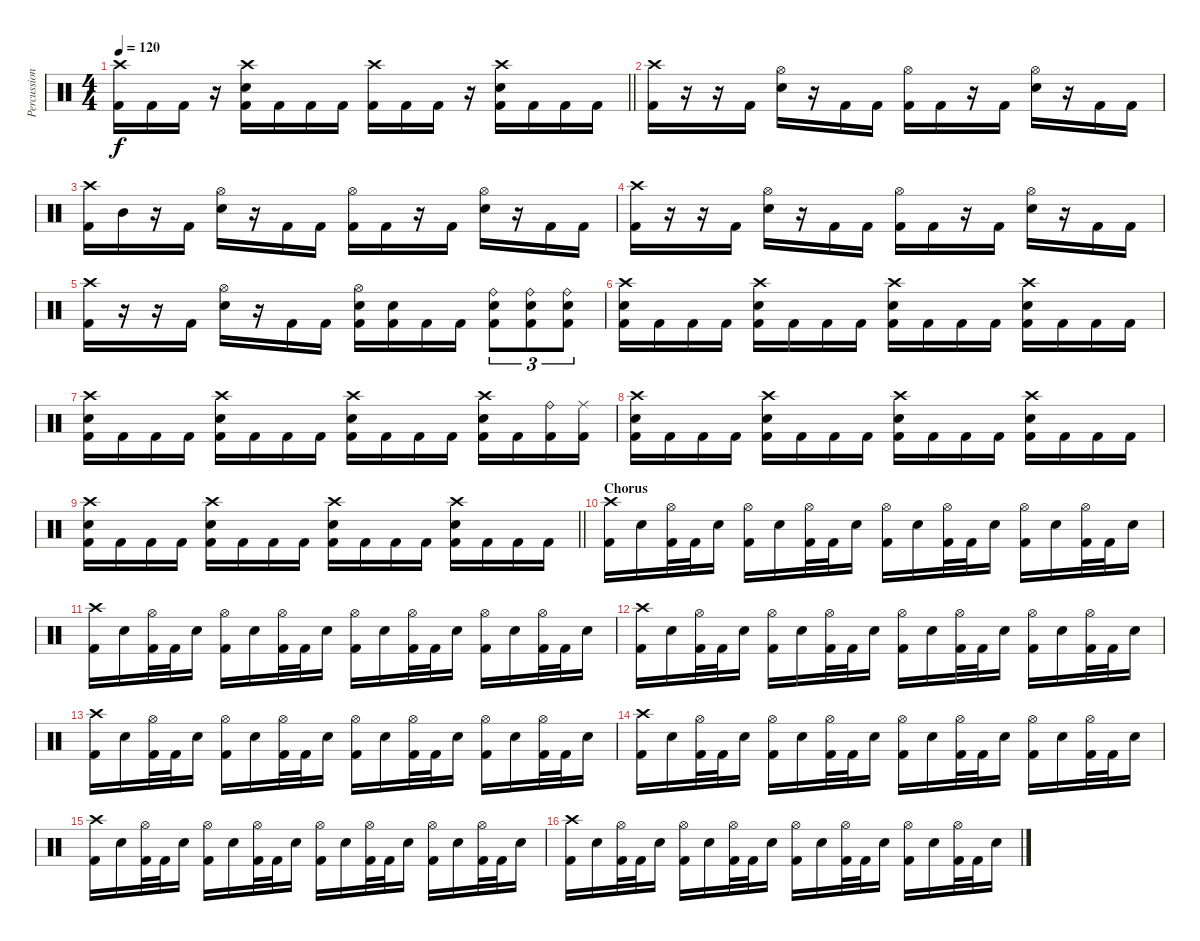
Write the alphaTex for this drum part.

\track ("Percussion" "Percussion") {instrument percussion}
\staff {score}
\articulation defaults
\ts (4 4)
\tempo 120
\clef neutral
\barLineRight lightlight
\ks c
("Crash high (hit)" "Kick (hit) 2").16{dy f} "Kick (hit) 2".16 "Kick (hit) 2".16 r.16 ("Crash high (hit)" "Snare (hit) 2" "Kick (hit) 2").16 "Kick (hit) 2".16 "Kick (hit) 2".16 "Kick (hit) 2".16 ("Crash high (hit)" "Kick (hit) 2").16 "Kick (hit) 2".16 "Kick (hit) 2".16 r.16 ("Crash high (hit)" "Snare (hit) 2" "Kick (hit) 2").16 "Kick (hit) 2".16 "Kick (hit) 2".16 "Kick (hit) 2".16 |
\section ("" "")
("Crash high (hit)" "Kick (hit) 2").16 r.16 r.16 "Kick (hit) 2".16 ("Hi-Hat (open)" "Snare (hit) 2").16 r.16 "Kick (hit) 2".16 "Kick (hit) 2".16 ("Hi-Hat (open)" "Kick (hit) 2").16 "Kick (hit) 2".16 r.16 "Kick (hit) 2".16 ("Hi-Hat (open)" "Snare (hit) 2").16 r.16 "Kick (hit) 2".16 "Kick (hit) 2".16 |
("Crash high (hit)" "Kick (hit) 2").16 "Mid Tom (hit)".16 r.16 "Kick (hit) 2".16 ("Hi-Hat (open)" "Snare (hit) 2").16 r.16 "Kick (hit) 2".16 "Kick (hit) 2".16 ("Hi-Hat (open)" "Kick (hit) 2").16 "Kick (hit) 2".16 r.16 "Kick (hit) 2".16 ("Hi-Hat (open)" "Snare (hit) 2").16 r.16 "Kick (hit) 2".16 "Kick (hit) 2".16 |
("Crash high (hit)" "Kick (hit) 2").16 r.16 r.16 "Kick (hit) 2".16 ("Hi-Hat (open)" "Snare (hit) 2").16 r.16 "Kick (hit) 2".16 "Kick (hit) 2".16 ("Hi-Hat (open)" "Kick (hit) 2").16 "Kick (hit) 2".16 r.16 "Kick (hit) 2".16 ("Hi-Hat (open)" "Snare (hit) 2").16 r.16 "Kick (hit) 2".16 "Kick (hit) 2".16 |
("Crash high (hit)" "Kick (hit) 2").16 r.16 r.16 "Kick (hit) 2".16 ("Hi-Hat (open)" "Snare (hit) 2").16 r.16 "Kick (hit) 2".16 "Kick (hit) 2".16 ("Hi-Hat (open)" "Snare (hit) 2" "Kick (hit) 2").16 ("Snare (hit) 2" "Kick (hit) 2").16 "Kick (hit) 2".16 "Kick (hit) 2".16 ("Ride (bell)" "Snare (hit) 2" "Kick (hit) 2").8{tu (3 2)} ("Ride (bell)" "Snare (hit) 2" "Kick (hit) 2").8{tu (3 2)} ("Ride (bell)" "Snare (hit) 2" "Kick (hit) 2").8{tu (3 2)} |
("Crash high (hit)" "Snare (hit) 2" "Kick (hit) 2").16 "Kick (hit) 2".16 "Kick (hit) 2".16 "Kick (hit) 2".16 ("Crash high (hit)" "Snare (hit) 2" "Kick (hit) 2").16 "Kick (hit) 2".16 "Kick (hit) 2".16 "Kick (hit) 2".16 ("Crash high (hit)" "Snare (hit) 2" "Kick (hit) 2").16 "Kick (hit) 2".16 "Kick (hit) 2".16 "Kick (hit) 2".16 ("Crash high (hit)" "Snare (hit) 2" "Kick (hit) 2").16 "Kick (hit) 2".16 "Kick (hit) 2".16 "Kick (hit) 2".16 |
("Crash high (hit)" "Snare (hit) 2" "Kick (hit) 2").16 "Kick (hit) 2".16 "Kick (hit) 2".16 "Kick (hit) 2".16 ("Crash high (hit)" "Snare (hit) 2" "Kick (hit) 2").16 "Kick (hit) 2".16 "Kick (hit) 2".16 "Kick (hit) 2".16 ("Crash high (hit)" "Snare (hit) 2" "Kick (hit) 2").16 "Kick (hit) 2".16 "Kick (hit) 2".16 "Kick (hit) 2".16 ("Crash high (hit)" "Snare (hit) 2" "Kick (hit) 2").16 "Kick (hit) 2".16 ("Ride (bell)" "Kick (hit) 2").16 ("Ride (middle)" "Kick (hit) 2").16 |
("Crash high (hit)" "Snare (hit) 2" "Kick (hit) 2").16 "Kick (hit) 2".16 "Kick (hit) 2".16 "Kick (hit) 2".16 ("Crash high (hit)" "Snare (hit) 2" "Kick (hit) 2").16 "Kick (hit) 2".16 "Kick (hit) 2".16 "Kick (hit) 2".16 ("Crash high (hit)" "Snare (hit) 2" "Kick (hit) 2").16 "Kick (hit) 2".16 "Kick (hit) 2".16 "Kick (hit) 2".16 ("Crash high (hit)" "Snare (hit) 2" "Kick (hit) 2").16 "Kick (hit) 2".16 "Kick (hit) 2".16 "Kick (hit) 2".16 |
\barLineRight lightlight
("Crash high (hit)" "Snare (hit) 2" "Kick (hit) 2").16 "Kick (hit) 2".16 "Kick (hit) 2".16 "Kick (hit) 2".16 ("Crash high (hit)" "Snare (hit) 2" "Kick (hit) 2").16 "Kick (hit) 2".16 "Kick (hit) 2".16 "Kick (hit) 2".16 ("Crash high (hit)" "Snare (hit) 2" "Kick (hit) 2").16 "Kick (hit) 2".16 "Kick (hit) 2".16 "Kick (hit) 2".16 ("Crash high (hit)" "Snare (hit) 2" "Kick (hit) 2").16 "Kick (hit) 2".16 "Kick (hit) 2".16 "Kick (hit) 2".16 |
\section ("" "Chorus")
("Crash high (hit)" "Kick (hit) 2").16 "Snare (hit) 2".16 ("Hi-Hat (open)" "Kick (hit) 2").32 "Kick (hit) 2".32 "Snare (hit) 2".16 ("Hi-Hat (open)" "Kick (hit) 2").16 "Snare (hit) 2".16 ("Hi-Hat (open)" "Kick (hit) 2").32 "Kick (hit) 2".32 "Snare (hit) 2".16 ("Hi-Hat (open)" "Kick (hit) 2").16 "Snare (hit) 2".16 ("Hi-Hat (open)" "Kick (hit) 2").32 "Kick (hit) 2".32 "Snare (hit) 2".16 ("Hi-Hat (open)" "Kick (hit) 2").16 "Snare (hit) 2".16 ("Hi-Hat (open)" "Kick (hit) 2").32 "Kick (hit) 2".32 "Snare (hit) 2".16 |
("Crash high (hit)" "Kick (hit) 2").16 "Snare (hit) 2".16 ("Hi-Hat (open)" "Kick (hit) 2").32 "Kick (hit) 2".32 "Snare (hit) 2".16 ("Hi-Hat (open)" "Kick (hit) 2").16 "Snare (hit) 2".16 ("Hi-Hat (open)" "Kick (hit) 2").32 "Kick (hit) 2".32 "Snare (hit) 2".16 ("Hi-Hat (open)" "Kick (hit) 2").16 "Snare (hit) 2".16 ("Hi-Hat (open)" "Kick (hit) 2").32 "Kick (hit) 2".32 "Snare (hit) 2".16 ("Hi-Hat (open)" "Kick (hit) 2").16 "Snare (hit) 2".16 ("Hi-Hat (open)" "Kick (hit) 2").32 "Kick (hit) 2".32 "Snare (hit) 2".16 |
("Crash high (hit)" "Kick (hit) 2").16 "Snare (hit) 2".16 ("Hi-Hat (open)" "Kick (hit) 2").32 "Kick (hit) 2".32 "Snare (hit) 2".16 ("Hi-Hat (open)" "Kick (hit) 2").16 "Snare (hit) 2".16 ("Hi-Hat (open)" "Kick (hit) 2").32 "Kick (hit) 2".32 "Snare (hit) 2".16 ("Hi-Hat (open)" "Kick (hit) 2").16 "Snare (hit) 2".16 ("Hi-Hat (open)" "Kick (hit) 2").32 "Kick (hit) 2".32 "Snare (hit) 2".16 ("Hi-Hat (open)" "Kick (hit) 2").16 "Snare (hit) 2".16 ("Hi-Hat (open)" "Kick (hit) 2").32 "Kick (hit) 2".32 "Snare (hit) 2".16 |
("Crash high (hit)" "Kick (hit) 2").16 "Snare (hit) 2".16 ("Hi-Hat (open)" "Kick (hit) 2").32 "Kick (hit) 2".32 "Snare (hit) 2".16 ("Hi-Hat (open)" "Kick (hit) 2").16 "Snare (hit) 2".16 ("Hi-Hat (open)" "Kick (hit) 2").32 "Kick (hit) 2".32 "Snare (hit) 2".16 ("Hi-Hat (open)" "Kick (hit) 2").16 "Snare (hit) 2".16 ("Hi-Hat (open)" "Kick (hit) 2").32 "Kick (hit) 2".32 "Snare (hit) 2".16 ("Hi-Hat (open)" "Kick (hit) 2").16 "Snare (hit) 2".16 ("Hi-Hat (open)" "Kick (hit) 2").32 "Kick (hit) 2".32 "Snare (hit) 2".16 |
("Crash high (hit)" "Kick (hit) 2").16 "Snare (hit) 2".16 ("Hi-Hat (open)" "Kick (hit) 2").32 "Kick (hit) 2".32 "Snare (hit) 2".16 ("Hi-Hat (open)" "Kick (hit) 2").16 "Snare (hit) 2".16 ("Hi-Hat (open)" "Kick (hit) 2").32 "Kick (hit) 2".32 "Snare (hit) 2".16 ("Hi-Hat (open)" "Kick (hit) 2").16 "Snare (hit) 2".16 ("Hi-Hat (open)" "Kick (hit) 2").32 "Kick (hit) 2".32 "Snare (hit) 2".16 ("Hi-Hat (open)" "Kick (hit) 2").16 "Snare (hit) 2".16 ("Hi-Hat (open)" "Kick (hit) 2").32 "Kick (hit) 2".32 "Snare (hit) 2".16 |
("Crash high (hit)" "Kick (hit) 2").16 "Snare (hit) 2".16 ("Hi-Hat (open)" "Kick (hit) 2").32 "Kick (hit) 2".32 "Snare (hit) 2".16 ("Hi-Hat (open)" "Kick (hit) 2").16 "Snare (hit) 2".16 ("Hi-Hat (open)" "Kick (hit) 2").32 "Kick (hit) 2".32 "Snare (hit) 2".16 ("Hi-Hat (open)" "Kick (hit) 2").16 "Snare (hit) 2".16 ("Hi-Hat (open)" "Kick (hit) 2").32 "Kick (hit) 2".32 "Snare (hit) 2".16 ("Hi-Hat (open)" "Kick (hit) 2").16 "Snare (hit) 2".16 ("Hi-Hat (open)" "Kick (hit) 2").32 "Kick (hit) 2".32 "Snare (hit) 2".16 |
("Crash high (hit)" "Kick (hit) 2").16 "Snare (hit) 2".16 ("Hi-Hat (open)" "Kick (hit) 2").32 "Kick (hit) 2".32 "Snare (hit) 2".16 ("Hi-Hat (open)" "Kick (hit) 2").16 "Snare (hit) 2".16 ("Hi-Hat (open)" "Kick (hit) 2").32 "Kick (hit) 2".32 "Snare (hit) 2".16 ("Hi-Hat (open)" "Kick (hit) 2").16 "Snare (hit) 2".16 ("Hi-Hat (open)" "Kick (hit) 2").32 "Kick (hit) 2".32 "Snare (hit) 2".16 ("Hi-Hat (open)" "Kick (hit) 2").16 "Snare (hit) 2".16 ("Hi-Hat (open)" "Kick (hit) 2").32 "Kick (hit) 2".32 "Snare (hit) 2".16
